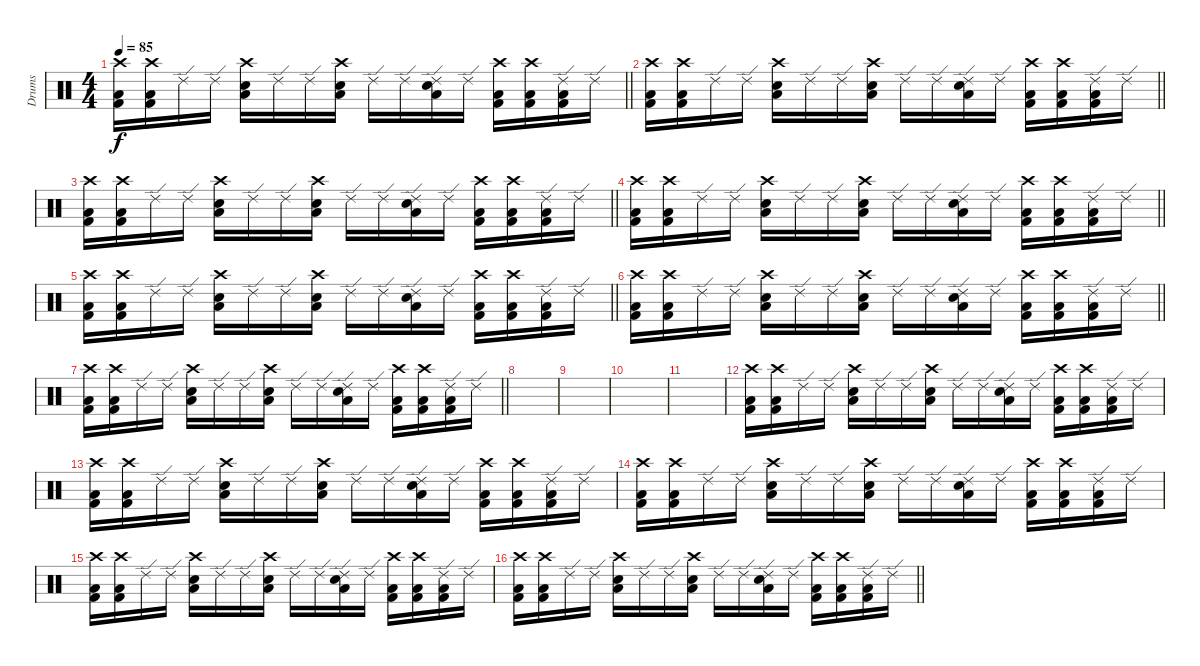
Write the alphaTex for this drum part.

\track ("Drums" "Drums") {instrument percussion}
\staff {score}
\articulation defaults
\ts (4 4)
\tempo 85
\clef neutral
\barLineRight lightlight
\ks c
("Crash high (hit)" "Low Floor Tom (hit)" "Kick (hit) 2").16{dy f} ("Crash high (hit)" "Low Floor Tom (hit)" "Kick (hit) 2").16 "Ride (edge) 2".16 "Ride (edge) 2".16 ("Crash high (hit)" "Low Floor Tom (hit)" "Snare (hit) 2").16 "Ride (edge) 2".16 "Ride (edge) 2".16 ("Crash high (hit)" "Low Floor Tom (hit)" "Snare (hit) 2").16 "Ride (edge) 2".16 "Ride (edge) 2".16 ("Ride (edge) 2" "Low Floor Tom (hit)" "Snare (hit) 2").16 "Ride (edge) 2".16 ("Crash high (hit)" "Low Floor Tom (hit)" "Kick (hit) 2").16 ("Crash high (hit)" "Low Floor Tom (hit)" "Kick (hit) 2").16 ("Ride (edge) 2" "Low Floor Tom (hit)" "Kick (hit) 2").16 "Ride (edge) 2".16 |
\barLineRight lightlight
("Crash high (hit)" "Low Floor Tom (hit)" "Kick (hit) 2").16 ("Crash high (hit)" "Low Floor Tom (hit)" "Kick (hit) 2").16 "Ride (edge) 2".16 "Ride (edge) 2".16 ("Crash high (hit)" "Low Floor Tom (hit)" "Snare (hit) 2").16 "Ride (edge) 2".16 "Ride (edge) 2".16 ("Crash high (hit)" "Low Floor Tom (hit)" "Snare (hit) 2").16 "Ride (edge) 2".16 "Ride (edge) 2".16 ("Ride (edge) 2" "Low Floor Tom (hit)" "Snare (hit) 2").16 "Ride (edge) 2".16 ("Crash high (hit)" "Low Floor Tom (hit)" "Kick (hit) 2").16 ("Crash high (hit)" "Low Floor Tom (hit)" "Kick (hit) 2").16 ("Ride (edge) 2" "Low Floor Tom (hit)" "Kick (hit) 2").16 "Ride (edge) 2".16 |
\barLineRight lightlight
("Crash high (hit)" "Low Floor Tom (hit)" "Kick (hit) 2").16 ("Crash high (hit)" "Low Floor Tom (hit)" "Kick (hit) 2").16 "Ride (edge) 2".16 "Ride (edge) 2".16 ("Crash high (hit)" "Low Floor Tom (hit)" "Snare (hit) 2").16 "Ride (edge) 2".16 "Ride (edge) 2".16 ("Crash high (hit)" "Low Floor Tom (hit)" "Snare (hit) 2").16 "Ride (edge) 2".16 "Ride (edge) 2".16 ("Ride (edge) 2" "Low Floor Tom (hit)" "Snare (hit) 2").16 "Ride (edge) 2".16 ("Crash high (hit)" "Low Floor Tom (hit)" "Kick (hit) 2").16 ("Crash high (hit)" "Low Floor Tom (hit)" "Kick (hit) 2").16 ("Ride (edge) 2" "Low Floor Tom (hit)" "Kick (hit) 2").16 "Ride (edge) 2".16 |
\barLineRight lightlight
("Crash high (hit)" "Low Floor Tom (hit)" "Kick (hit) 2").16 ("Crash high (hit)" "Low Floor Tom (hit)" "Kick (hit) 2").16 "Ride (edge) 2".16 "Ride (edge) 2".16 ("Crash high (hit)" "Low Floor Tom (hit)" "Snare (hit) 2").16 "Ride (edge) 2".16 "Ride (edge) 2".16 ("Crash high (hit)" "Low Floor Tom (hit)" "Snare (hit) 2").16 "Ride (edge) 2".16 "Ride (edge) 2".16 ("Ride (edge) 2" "Low Floor Tom (hit)" "Snare (hit) 2").16 "Ride (edge) 2".16 ("Crash high (hit)" "Low Floor Tom (hit)" "Kick (hit) 2").16 ("Crash high (hit)" "Low Floor Tom (hit)" "Kick (hit) 2").16 ("Ride (edge) 2" "Low Floor Tom (hit)" "Kick (hit) 2").16 "Ride (edge) 2".16 |
\barLineRight lightlight
("Crash high (hit)" "Low Floor Tom (hit)" "Kick (hit) 2").16 ("Crash high (hit)" "Low Floor Tom (hit)" "Kick (hit) 2").16 "Ride (edge) 2".16 "Ride (edge) 2".16 ("Crash high (hit)" "Low Floor Tom (hit)" "Snare (hit) 2").16 "Ride (edge) 2".16 "Ride (edge) 2".16 ("Crash high (hit)" "Low Floor Tom (hit)" "Snare (hit) 2").16 "Ride (edge) 2".16 "Ride (edge) 2".16 ("Ride (edge) 2" "Low Floor Tom (hit)" "Snare (hit) 2").16 "Ride (edge) 2".16 ("Crash high (hit)" "Low Floor Tom (hit)" "Kick (hit) 2").16 ("Crash high (hit)" "Low Floor Tom (hit)" "Kick (hit) 2").16 ("Ride (edge) 2" "Low Floor Tom (hit)" "Kick (hit) 2").16 "Ride (edge) 2".16 |
\barLineRight lightlight
("Crash high (hit)" "Low Floor Tom (hit)" "Kick (hit) 2").16 ("Crash high (hit)" "Low Floor Tom (hit)" "Kick (hit) 2").16 "Ride (edge) 2".16 "Ride (edge) 2".16 ("Crash high (hit)" "Low Floor Tom (hit)" "Snare (hit) 2").16 "Ride (edge) 2".16 "Ride (edge) 2".16 ("Crash high (hit)" "Low Floor Tom (hit)" "Snare (hit) 2").16 "Ride (edge) 2".16 "Ride (edge) 2".16 ("Ride (edge) 2" "Low Floor Tom (hit)" "Snare (hit) 2").16 "Ride (edge) 2".16 ("Crash high (hit)" "Low Floor Tom (hit)" "Kick (hit) 2").16 ("Crash high (hit)" "Low Floor Tom (hit)" "Kick (hit) 2").16 ("Ride (edge) 2" "Low Floor Tom (hit)" "Kick (hit) 2").16 "Ride (edge) 2".16 |
\barLineRight lightlight
("Crash high (hit)" "Low Floor Tom (hit)" "Kick (hit) 2").16 ("Crash high (hit)" "Low Floor Tom (hit)" "Kick (hit) 2").16 "Ride (edge) 2".16 "Ride (edge) 2".16 ("Crash high (hit)" "Low Floor Tom (hit)" "Snare (hit) 2").16 "Ride (edge) 2".16 "Ride (edge) 2".16 ("Crash high (hit)" "Low Floor Tom (hit)" "Snare (hit) 2").16 "Ride (edge) 2".16 "Ride (edge) 2".16 ("Ride (edge) 2" "Low Floor Tom (hit)" "Snare (hit) 2").16 "Ride (edge) 2".16 ("Crash high (hit)" "Low Floor Tom (hit)" "Kick (hit) 2").16 ("Crash high (hit)" "Low Floor Tom (hit)" "Kick (hit) 2").16 ("Ride (edge) 2" "Low Floor Tom (hit)" "Kick (hit) 2").16 "Ride (edge) 2".16 |
|
|
|
|
("Crash high (hit)" "Low Floor Tom (hit)" "Kick (hit) 2").16 ("Crash high (hit)" "Low Floor Tom (hit)" "Kick (hit) 2").16 "Ride (edge) 2".16 "Ride (edge) 2".16 ("Crash high (hit)" "Low Floor Tom (hit)" "Snare (hit) 2").16 "Ride (edge) 2".16 "Ride (edge) 2".16 ("Crash high (hit)" "Low Floor Tom (hit)" "Snare (hit) 2").16 "Ride (edge) 2".16 "Ride (edge) 2".16 ("Ride (edge) 2" "Low Floor Tom (hit)" "Snare (hit) 2").16 "Ride (edge) 2".16 ("Crash high (hit)" "Low Floor Tom (hit)" "Kick (hit) 2").16 ("Crash high (hit)" "Low Floor Tom (hit)" "Kick (hit) 2").16 ("Ride (edge) 2" "Low Floor Tom (hit)" "Kick (hit) 2").16 "Ride (edge) 2".16 |
("Crash high (hit)" "Low Floor Tom (hit)" "Kick (hit) 2").16 ("Crash high (hit)" "Low Floor Tom (hit)" "Kick (hit) 2").16 "Ride (edge) 2".16 "Ride (edge) 2".16 ("Crash high (hit)" "Low Floor Tom (hit)" "Snare (hit) 2").16 "Ride (edge) 2".16 "Ride (edge) 2".16 ("Crash high (hit)" "Low Floor Tom (hit)" "Snare (hit) 2").16 "Ride (edge) 2".16 "Ride (edge) 2".16 ("Ride (edge) 2" "Low Floor Tom (hit)" "Snare (hit) 2").16 "Ride (edge) 2".16 ("Crash high (hit)" "Low Floor Tom (hit)" "Kick (hit) 2").16 ("Crash high (hit)" "Low Floor Tom (hit)" "Kick (hit) 2").16 ("Ride (edge) 2" "Low Floor Tom (hit)" "Kick (hit) 2").16 "Ride (edge) 2".16 |
("Crash high (hit)" "Low Floor Tom (hit)" "Kick (hit) 2").16 ("Crash high (hit)" "Low Floor Tom (hit)" "Kick (hit) 2").16 "Ride (edge) 2".16 "Ride (edge) 2".16 ("Crash high (hit)" "Low Floor Tom (hit)" "Snare (hit) 2").16 "Ride (edge) 2".16 "Ride (edge) 2".16 ("Crash high (hit)" "Low Floor Tom (hit)" "Snare (hit) 2").16 "Ride (edge) 2".16 "Ride (edge) 2".16 ("Ride (edge) 2" "Low Floor Tom (hit)" "Snare (hit) 2").16 "Ride (edge) 2".16 ("Crash high (hit)" "Low Floor Tom (hit)" "Kick (hit) 2").16 ("Crash high (hit)" "Low Floor Tom (hit)" "Kick (hit) 2").16 ("Ride (edge) 2" "Low Floor Tom (hit)" "Kick (hit) 2").16 "Ride (edge) 2".16 |
("Crash high (hit)" "Low Floor Tom (hit)" "Kick (hit) 2").16 ("Crash high (hit)" "Low Floor Tom (hit)" "Kick (hit) 2").16 "Ride (edge) 2".16 "Ride (edge) 2".16 ("Crash high (hit)" "Low Floor Tom (hit)" "Snare (hit) 2").16 "Ride (edge) 2".16 "Ride (edge) 2".16 ("Crash high (hit)" "Low Floor Tom (hit)" "Snare (hit) 2").16 "Ride (edge) 2".16 "Ride (edge) 2".16 ("Ride (edge) 2" "Low Floor Tom (hit)" "Snare (hit) 2").16 "Ride (edge) 2".16 ("Crash high (hit)" "Low Floor Tom (hit)" "Kick (hit) 2").16 ("Crash high (hit)" "Low Floor Tom (hit)" "Kick (hit) 2").16 ("Ride (edge) 2" "Low Floor Tom (hit)" "Kick (hit) 2").16 "Ride (edge) 2".16 |
\barLineRight lightlight
("Crash high (hit)" "Low Floor Tom (hit)" "Kick (hit) 2").16 ("Crash high (hit)" "Low Floor Tom (hit)" "Kick (hit) 2").16 "Ride (edge) 2".16 "Ride (edge) 2".16 ("Crash high (hit)" "Low Floor Tom (hit)" "Snare (hit) 2").16 "Ride (edge) 2".16 "Ride (edge) 2".16 ("Crash high (hit)" "Low Floor Tom (hit)" "Snare (hit) 2").16 "Ride (edge) 2".16 "Ride (edge) 2".16 ("Ride (edge) 2" "Low Floor Tom (hit)" "Snare (hit) 2").16 "Ride (edge) 2".16 ("Crash high (hit)" "Low Floor Tom (hit)" "Kick (hit) 2").16 ("Crash high (hit)" "Low Floor Tom (hit)" "Kick (hit) 2").16 ("Ride (edge) 2" "Low Floor Tom (hit)" "Kick (hit) 2").16 "Ride (edge) 2".16
